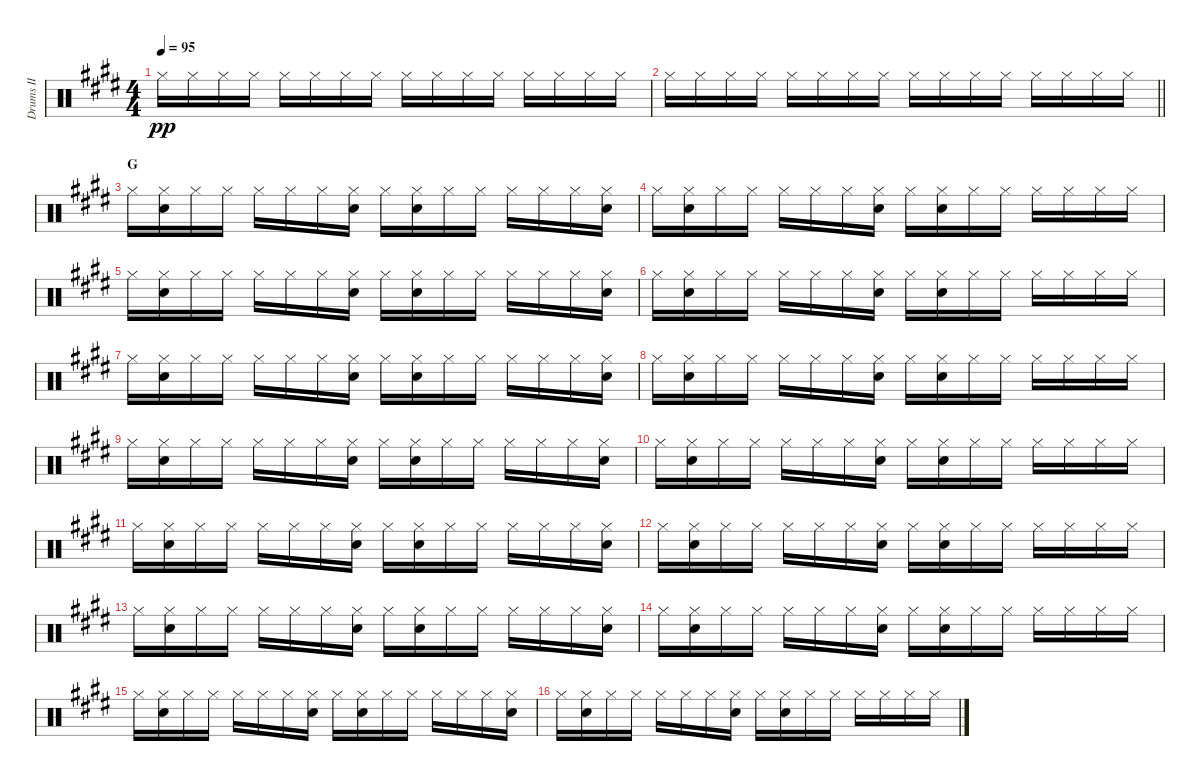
\track ("Drums II" "Drums II") {instrument percussion}
\staff {score}
\articulation defaults
\ts (4 4)
\tempo 95
\clef neutral
\ks e "Hi-Hat (closed)".16{dy pp} "Hi-Hat (closed)".16 "Hi-Hat (closed)".16 "Hi-Hat (closed)".16 "Hi-Hat (closed)".16 "Hi-Hat (closed)".16 "Hi-Hat (closed)".16 "Hi-Hat (closed)".16 "Hi-Hat (closed)".16 "Hi-Hat (closed)".16 "Hi-Hat (closed)".16 "Hi-Hat (closed)".16 "Hi-Hat (closed)".16 "Hi-Hat (closed)".16 "Hi-Hat (closed)".16 "Hi-Hat (closed)".16
|
\barLineRight lightlight "Hi-Hat (closed)".16 "Hi-Hat (closed)".16 "Hi-Hat (closed)".16 "Hi-Hat (closed)".16 "Hi-Hat (closed)".16 "Hi-Hat (closed)".16 "Hi-Hat (closed)".16 "Hi-Hat (closed)".16 "Hi-Hat (closed)".16 "Hi-Hat (closed)".16 "Hi-Hat (closed)".16 "Hi-Hat (closed)".16 "Hi-Hat (closed)".16 "Hi-Hat (closed)".16 "Hi-Hat (closed)".16 "Hi-Hat (closed)".16
|
\section ("" "G")
"Hi-Hat (closed)".16 ("Hi-Hat (closed)" "Snare (hit) 2").16 "Hi-Hat (closed)".16 "Hi-Hat (closed)".16 "Hi-Hat (closed)".16 "Hi-Hat (closed)".16 "Hi-Hat (closed)".16 ("Hi-Hat (closed)" "Snare (hit) 2").16 "Hi-Hat (closed)".16 ("Hi-Hat (closed)" "Snare (hit) 2").16 "Hi-Hat (closed)".16 "Hi-Hat (closed)".16 "Hi-Hat (closed)".16 "Hi-Hat (closed)".16 "Hi-Hat (closed)".16 ("Hi-Hat (closed)" "Snare (hit) 2").16 |
"Hi-Hat (closed)".16 ("Hi-Hat (closed)" "Snare (hit) 2").16 "Hi-Hat (closed)".16 "Hi-Hat (closed)".16 "Hi-Hat (closed)".16 "Hi-Hat (closed)".16 "Hi-Hat (closed)".16 ("Hi-Hat (closed)" "Snare (hit) 2").16 "Hi-Hat (closed)".16 ("Hi-Hat (closed)" "Snare (hit) 2").16 "Hi-Hat (closed)".16 "Hi-Hat (closed)".16 "Hi-Hat (closed)".16 "Hi-Hat (closed)".16 "Hi-Hat (closed)".16 "Hi-Hat (closed)".16 |
"Hi-Hat (closed)".16 ("Hi-Hat (closed)" "Snare (hit) 2").16 "Hi-Hat (closed)".16 "Hi-Hat (closed)".16 "Hi-Hat (closed)".16 "Hi-Hat (closed)".16 "Hi-Hat (closed)".16 ("Hi-Hat (closed)" "Snare (hit) 2").16 "Hi-Hat (closed)".16 ("Hi-Hat (closed)" "Snare (hit) 2").16 "Hi-Hat (closed)".16 "Hi-Hat (closed)".16 "Hi-Hat (closed)".16 "Hi-Hat (closed)".16 "Hi-Hat (closed)".16 ("Hi-Hat (closed)" "Snare (hit) 2").16 |
"Hi-Hat (closed)".16 ("Hi-Hat (closed)" "Snare (hit) 2").16 "Hi-Hat (closed)".16 "Hi-Hat (closed)".16 "Hi-Hat (closed)".16 "Hi-Hat (closed)".16 "Hi-Hat (closed)".16 ("Hi-Hat (closed)" "Snare (hit) 2").16 "Hi-Hat (closed)".16 ("Hi-Hat (closed)" "Snare (hit) 2").16 "Hi-Hat (closed)".16 "Hi-Hat (closed)".16 "Hi-Hat (closed)".16 "Hi-Hat (closed)".16 "Hi-Hat (closed)".16 "Hi-Hat (closed)".16 |
"Hi-Hat (closed)".16 ("Hi-Hat (closed)" "Snare (hit) 2").16 "Hi-Hat (closed)".16 "Hi-Hat (closed)".16 "Hi-Hat (closed)".16 "Hi-Hat (closed)".16 "Hi-Hat (closed)".16 ("Hi-Hat (closed)" "Snare (hit) 2").16 "Hi-Hat (closed)".16 ("Hi-Hat (closed)" "Snare (hit) 2").16 "Hi-Hat (closed)".16 "Hi-Hat (closed)".16 "Hi-Hat (closed)".16 "Hi-Hat (closed)".16 "Hi-Hat (closed)".16 ("Hi-Hat (closed)" "Snare (hit) 2").16 |
"Hi-Hat (closed)".16 ("Hi-Hat (closed)" "Snare (hit) 2").16 "Hi-Hat (closed)".16 "Hi-Hat (closed)".16 "Hi-Hat (closed)".16 "Hi-Hat (closed)".16 "Hi-Hat (closed)".16 ("Hi-Hat (closed)" "Snare (hit) 2").16 "Hi-Hat (closed)".16 ("Hi-Hat (closed)" "Snare (hit) 2").16 "Hi-Hat (closed)".16 "Hi-Hat (closed)".16 "Hi-Hat (closed)".16 "Hi-Hat (closed)".16 "Hi-Hat (closed)".16 "Hi-Hat (closed)".16 |
"Hi-Hat (closed)".16 ("Hi-Hat (closed)" "Snare (hit) 2").16 "Hi-Hat (closed)".16 "Hi-Hat (closed)".16 "Hi-Hat (closed)".16 "Hi-Hat (closed)".16 "Hi-Hat (closed)".16 ("Hi-Hat (closed)" "Snare (hit) 2").16 "Hi-Hat (closed)".16 ("Hi-Hat (closed)" "Snare (hit) 2").16 "Hi-Hat (closed)".16 "Hi-Hat (closed)".16 "Hi-Hat (closed)".16 "Hi-Hat (closed)".16 "Hi-Hat (closed)".16 ("Hi-Hat (closed)" "Snare (hit) 2").16 |
"Hi-Hat (closed)".16 ("Hi-Hat (closed)" "Snare (hit) 2").16 "Hi-Hat (closed)".16 "Hi-Hat (closed)".16 "Hi-Hat (closed)".16 "Hi-Hat (closed)".16 "Hi-Hat (closed)".16 ("Hi-Hat (closed)" "Snare (hit) 2").16 "Hi-Hat (closed)".16 ("Hi-Hat (closed)" "Snare (hit) 2").16 "Hi-Hat (closed)".16 "Hi-Hat (closed)".16 "Hi-Hat (closed)".16 "Hi-Hat (closed)".16 "Hi-Hat (closed)".16 "Hi-Hat (closed)".16 |
"Hi-Hat (closed)".16 ("Hi-Hat (closed)" "Snare (hit) 2").16 "Hi-Hat (closed)".16 "Hi-Hat (closed)".16 "Hi-Hat (closed)".16 "Hi-Hat (closed)".16 "Hi-Hat (closed)".16 ("Hi-Hat (closed)" "Snare (hit) 2").16 "Hi-Hat (closed)".16 ("Hi-Hat (closed)" "Snare (hit) 2").16 "Hi-Hat (closed)".16 "Hi-Hat (closed)".16 "Hi-Hat (closed)".16 "Hi-Hat (closed)".16 "Hi-Hat (closed)".16 ("Hi-Hat (closed)" "Snare (hit) 2").16 |
"Hi-Hat (closed)".16 ("Hi-Hat (closed)" "Snare (hit) 2").16 "Hi-Hat (closed)".16 "Hi-Hat (closed)".16 "Hi-Hat (closed)".16 "Hi-Hat (closed)".16 "Hi-Hat (closed)".16 ("Hi-Hat (closed)" "Snare (hit) 2").16 "Hi-Hat (closed)".16 ("Hi-Hat (closed)" "Snare (hit) 2").16 "Hi-Hat (closed)".16 "Hi-Hat (closed)".16 "Hi-Hat (closed)".16 "Hi-Hat (closed)".16 "Hi-Hat (closed)".16 "Hi-Hat (closed)".16 |
"Hi-Hat (closed)".16 ("Hi-Hat (closed)" "Snare (hit) 2").16 "Hi-Hat (closed)".16 "Hi-Hat (closed)".16 "Hi-Hat (closed)".16 "Hi-Hat (closed)".16 "Hi-Hat (closed)".16 ("Hi-Hat (closed)" "Snare (hit) 2").16 "Hi-Hat (closed)".16 ("Hi-Hat (closed)" "Snare (hit) 2").16 "Hi-Hat (closed)".16 "Hi-Hat (closed)".16 "Hi-Hat (closed)".16 "Hi-Hat (closed)".16 "Hi-Hat (closed)".16 ("Hi-Hat (closed)" "Snare (hit) 2").16 |
"Hi-Hat (closed)".16 ("Hi-Hat (closed)" "Snare (hit) 2").16 "Hi-Hat (closed)".16 "Hi-Hat (closed)".16 "Hi-Hat (closed)".16 "Hi-Hat (closed)".16 "Hi-Hat (closed)".16 ("Hi-Hat (closed)" "Snare (hit) 2").16 "Hi-Hat (closed)".16 ("Hi-Hat (closed)" "Snare (hit) 2").16 "Hi-Hat (closed)".16 "Hi-Hat (closed)".16 "Hi-Hat (closed)".16 "Hi-Hat (closed)".16 "Hi-Hat (closed)".16 "Hi-Hat (closed)".16 |
"Hi-Hat (closed)".16 ("Hi-Hat (closed)" "Snare (hit) 2").16 "Hi-Hat (closed)".16 "Hi-Hat (closed)".16 "Hi-Hat (closed)".16 "Hi-Hat (closed)".16 "Hi-Hat (closed)".16 ("Hi-Hat (closed)" "Snare (hit) 2").16 "Hi-Hat (closed)".16 ("Hi-Hat (closed)" "Snare (hit) 2").16 "Hi-Hat (closed)".16 "Hi-Hat (closed)".16 "Hi-Hat (closed)".16 "Hi-Hat (closed)".16 "Hi-Hat (closed)".16 ("Hi-Hat (closed)" "Snare (hit) 2").16 |
"Hi-Hat (closed)".16 ("Hi-Hat (closed)" "Snare (hit) 2").16 "Hi-Hat (closed)".16 "Hi-Hat (closed)".16 "Hi-Hat (closed)".16 "Hi-Hat (closed)".16 "Hi-Hat (closed)".16 ("Hi-Hat (closed)" "Snare (hit) 2").16 "Hi-Hat (closed)".16 ("Hi-Hat (closed)" "Snare (hit) 2").16 "Hi-Hat (closed)".16 "Hi-Hat (closed)".16 "Hi-Hat (closed)".16 "Hi-Hat (closed)".16 "Hi-Hat (closed)".16 "Hi-Hat (closed)".16
